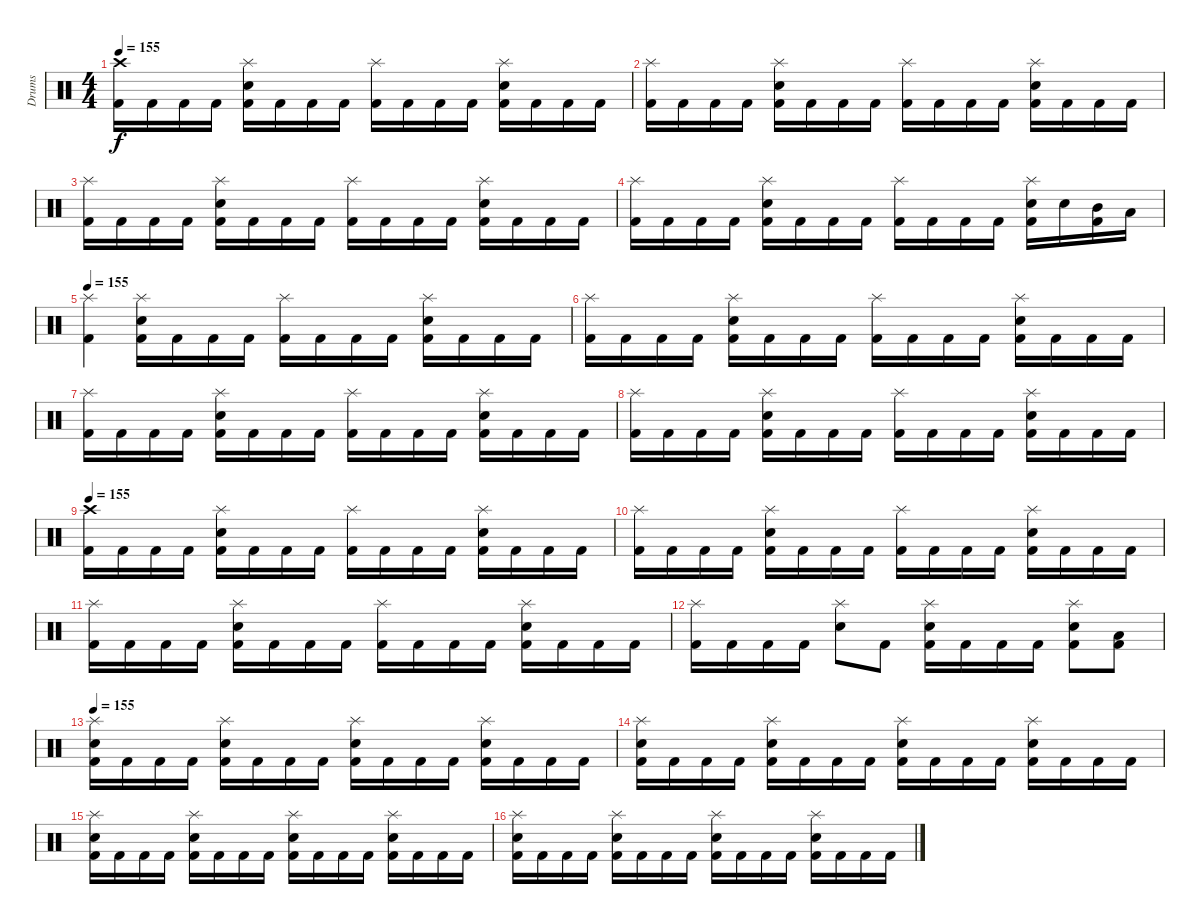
\track ("Drums" "Drums") {instrument percussion}
\staff {score}
\articulation defaults
\ts (4 4)
\tempo 155
\clef neutral
\ks c
("Kick (hit) 2" "Crash high (hit)").16{dy f} "Kick (hit) 2".16 "Kick (hit) 2".16 "Kick (hit) 2".16 ("Kick (hit) 2" "Snare (hit) 2" "Splash (hit)").16 "Kick (hit) 2".16 "Kick (hit) 2".16 "Kick (hit) 2".16 ("Kick (hit) 2" "Splash (hit)").16 "Kick (hit) 2".16 "Kick (hit) 2".16 "Kick (hit) 2".16 ("Kick (hit) 2" "Snare (hit) 2" "Splash (hit)").16 "Kick (hit) 2".16 "Kick (hit) 2".16 "Kick (hit) 2".16 |
("Kick (hit) 2" "Splash (hit)").16 "Kick (hit) 2".16 "Kick (hit) 2".16 "Kick (hit) 2".16 ("Kick (hit) 2" "Snare (hit) 2" "Splash (hit)").16 "Kick (hit) 2".16 "Kick (hit) 2".16 "Kick (hit) 2".16 ("Kick (hit) 2" "Splash (hit)").16 "Kick (hit) 2".16 "Kick (hit) 2".16 "Kick (hit) 2".16 ("Kick (hit) 2" "Snare (hit) 2" "Splash (hit)").16 "Kick (hit) 2".16 "Kick (hit) 2".16 "Kick (hit) 2".16 |
("Kick (hit) 2" "Splash (hit)").16 "Kick (hit) 2".16 "Kick (hit) 2".16 "Kick (hit) 2".16 ("Kick (hit) 2" "Snare (hit) 2" "Splash (hit)").16 "Kick (hit) 2".16 "Kick (hit) 2".16 "Kick (hit) 2".16 ("Kick (hit) 2" "Splash (hit)").16 "Kick (hit) 2".16 "Kick (hit) 2".16 "Kick (hit) 2".16 ("Kick (hit) 2" "Snare (hit) 2" "Splash (hit)").16 "Kick (hit) 2".16 "Kick (hit) 2".16 "Kick (hit) 2".16 |
("Kick (hit) 2" "Splash (hit)").16 "Kick (hit) 2".16 "Kick (hit) 2".16 "Kick (hit) 2".16 ("Kick (hit) 2" "Snare (hit) 2" "Splash (hit)").16 "Kick (hit) 2".16 "Kick (hit) 2".16 "Kick (hit) 2".16 ("Kick (hit) 2" "Splash (hit)").16 "Kick (hit) 2".16 "Kick (hit) 2".16 "Kick (hit) 2".16 ("Kick (hit) 2" "Snare (hit) 2" "Splash (hit)").16 "Snare (hit) 2".16 ("Kick (hit) 2" "Mid Tom (hit)").16 "Low Tom (hit)".16 |
\tempo 155
("Kick (hit) 2" "Splash (hit)").4 ("Kick (hit) 2" "Snare (hit) 2" "Splash (hit)").16 "Kick (hit) 2".16 "Kick (hit) 2".16 "Kick (hit) 2".16 ("Kick (hit) 2" "Splash (hit)").16 "Kick (hit) 2".16 "Kick (hit) 2".16 "Kick (hit) 2".16 ("Kick (hit) 2" "Snare (hit) 2" "Splash (hit)").16 "Kick (hit) 2".16 "Kick (hit) 2".16 "Kick (hit) 2".16 |
("Kick (hit) 2" "Splash (hit)").16 "Kick (hit) 2".16 "Kick (hit) 2".16 "Kick (hit) 2".16 ("Kick (hit) 2" "Snare (hit) 2" "Splash (hit)").16 "Kick (hit) 2".16 "Kick (hit) 2".16 "Kick (hit) 2".16 ("Kick (hit) 2" "Splash (hit)").16 "Kick (hit) 2".16 "Kick (hit) 2".16 "Kick (hit) 2".16 ("Kick (hit) 2" "Snare (hit) 2" "Splash (hit)").16 "Kick (hit) 2".16 "Kick (hit) 2".16 "Kick (hit) 2".16 |
("Kick (hit) 2" "Splash (hit)").16 "Kick (hit) 2".16 "Kick (hit) 2".16 "Kick (hit) 2".16 ("Kick (hit) 2" "Snare (hit) 2" "Splash (hit)").16 "Kick (hit) 2".16 "Kick (hit) 2".16 "Kick (hit) 2".16 ("Kick (hit) 2" "Splash (hit)").16 "Kick (hit) 2".16 "Kick (hit) 2".16 "Kick (hit) 2".16 ("Kick (hit) 2" "Snare (hit) 2" "Splash (hit)").16 "Kick (hit) 2".16 "Kick (hit) 2".16 "Kick (hit) 2".16 |
("Kick (hit) 2" "Splash (hit)").16 "Kick (hit) 2".16 "Kick (hit) 2".16 "Kick (hit) 2".16 ("Kick (hit) 2" "Snare (hit) 2" "Splash (hit)").16 "Kick (hit) 2".16 "Kick (hit) 2".16 "Kick (hit) 2".16 ("Kick (hit) 2" "Splash (hit)").16 "Kick (hit) 2".16 "Kick (hit) 2".16 "Kick (hit) 2".16 ("Kick (hit) 2" "Snare (hit) 2" "Splash (hit)").16 "Kick (hit) 2".16 "Kick (hit) 2".16 "Kick (hit) 2".16 |
\tempo 155
("Kick (hit) 2" "Crash high (hit)").16 "Kick (hit) 2".16 "Kick (hit) 2".16 "Kick (hit) 2".16 ("Kick (hit) 2" "Snare (hit) 2" "Splash (hit)").16 "Kick (hit) 2".16 "Kick (hit) 2".16 "Kick (hit) 2".16 ("Kick (hit) 2" "Splash (hit)").16 "Kick (hit) 2".16 "Kick (hit) 2".16 "Kick (hit) 2".16 ("Kick (hit) 2" "Snare (hit) 2" "Splash (hit)").16 "Kick (hit) 2".16 "Kick (hit) 2".16 "Kick (hit) 2".16 |
("Kick (hit) 2" "Splash (hit)").16 "Kick (hit) 2".16 "Kick (hit) 2".16 "Kick (hit) 2".16 ("Kick (hit) 2" "Snare (hit) 2" "Splash (hit)").16 "Kick (hit) 2".16 "Kick (hit) 2".16 "Kick (hit) 2".16 ("Kick (hit) 2" "Splash (hit)").16 "Kick (hit) 2".16 "Kick (hit) 2".16 "Kick (hit) 2".16 ("Kick (hit) 2" "Snare (hit) 2" "Splash (hit)").16 "Kick (hit) 2".16 "Kick (hit) 2".16 "Kick (hit) 2".16 |
("Kick (hit) 2" "Splash (hit)").16 "Kick (hit) 2".16 "Kick (hit) 2".16 "Kick (hit) 2".16 ("Kick (hit) 2" "Snare (hit) 2" "Splash (hit)").16 "Kick (hit) 2".16 "Kick (hit) 2".16 "Kick (hit) 2".16 ("Kick (hit) 2" "Splash (hit)").16 "Kick (hit) 2".16 "Kick (hit) 2".16 "Kick (hit) 2".16 ("Kick (hit) 2" "Snare (hit) 2" "Splash (hit)").16 "Kick (hit) 2".16 "Kick (hit) 2".16 "Kick (hit) 2".16 |
("Kick (hit) 2" "Splash (hit)").16 "Kick (hit) 2".16 "Kick (hit) 2".16 "Kick (hit) 2".16 ("Snare (hit) 2" "Splash (hit)").8 "Kick (hit) 2".8 ("Kick (hit) 2" "Snare (hit) 2" "Splash (hit)").16 "Kick (hit) 2".16 "Kick (hit) 2".16 "Kick (hit) 2".16 ("Kick (hit) 2" "Snare (hit) 2" "Splash (hit)").8 ("Kick (hit) 2" "Low Tom (hit)").8 |
\tempo 155
("Kick (hit) 2" "Snare (hit) 2" "Splash (hit)").16 "Kick (hit) 2".16 "Kick (hit) 2".16 "Kick (hit) 2".16 ("Kick (hit) 2" "Snare (hit) 2" "Splash (hit)").16 "Kick (hit) 2".16 "Kick (hit) 2".16 "Kick (hit) 2".16 ("Kick (hit) 2" "Snare (hit) 2" "Splash (hit)").16 "Kick (hit) 2".16 "Kick (hit) 2".16 "Kick (hit) 2".16 ("Kick (hit) 2" "Snare (hit) 2" "Splash (hit)").16 "Kick (hit) 2".16 "Kick (hit) 2".16 "Kick (hit) 2".16 |
("Kick (hit) 2" "Snare (hit) 2" "Splash (hit)").16 "Kick (hit) 2".16 "Kick (hit) 2".16 "Kick (hit) 2".16 ("Kick (hit) 2" "Snare (hit) 2" "Splash (hit)").16 "Kick (hit) 2".16 "Kick (hit) 2".16 "Kick (hit) 2".16 ("Kick (hit) 2" "Snare (hit) 2" "Splash (hit)").16 "Kick (hit) 2".16 "Kick (hit) 2".16 "Kick (hit) 2".16 ("Kick (hit) 2" "Snare (hit) 2" "Splash (hit)").16 "Kick (hit) 2".16 "Kick (hit) 2".16 "Kick (hit) 2".16 |
("Kick (hit) 2" "Snare (hit) 2" "Splash (hit)").16 "Kick (hit) 2".16 "Kick (hit) 2".16 "Kick (hit) 2".16 ("Kick (hit) 2" "Snare (hit) 2" "Splash (hit)").16 "Kick (hit) 2".16 "Kick (hit) 2".16 "Kick (hit) 2".16 ("Kick (hit) 2" "Snare (hit) 2" "Splash (hit)").16 "Kick (hit) 2".16 "Kick (hit) 2".16 "Kick (hit) 2".16 ("Kick (hit) 2" "Snare (hit) 2" "Splash (hit)").16 "Kick (hit) 2".16 "Kick (hit) 2".16 "Kick (hit) 2".16 |
("Kick (hit) 2" "Snare (hit) 2" "Splash (hit)").16 "Kick (hit) 2".16 "Kick (hit) 2".16 "Kick (hit) 2".16 ("Kick (hit) 2" "Snare (hit) 2" "Splash (hit)").16 "Kick (hit) 2".16 "Kick (hit) 2".16 "Kick (hit) 2".16 ("Kick (hit) 2" "Snare (hit) 2" "Splash (hit)").16 "Kick (hit) 2".16 "Kick (hit) 2".16 "Kick (hit) 2".16 ("Kick (hit) 2" "Snare (hit) 2" "Splash (hit)").16 "Kick (hit) 2".16 "Kick (hit) 2".16 "Kick (hit) 2".16
